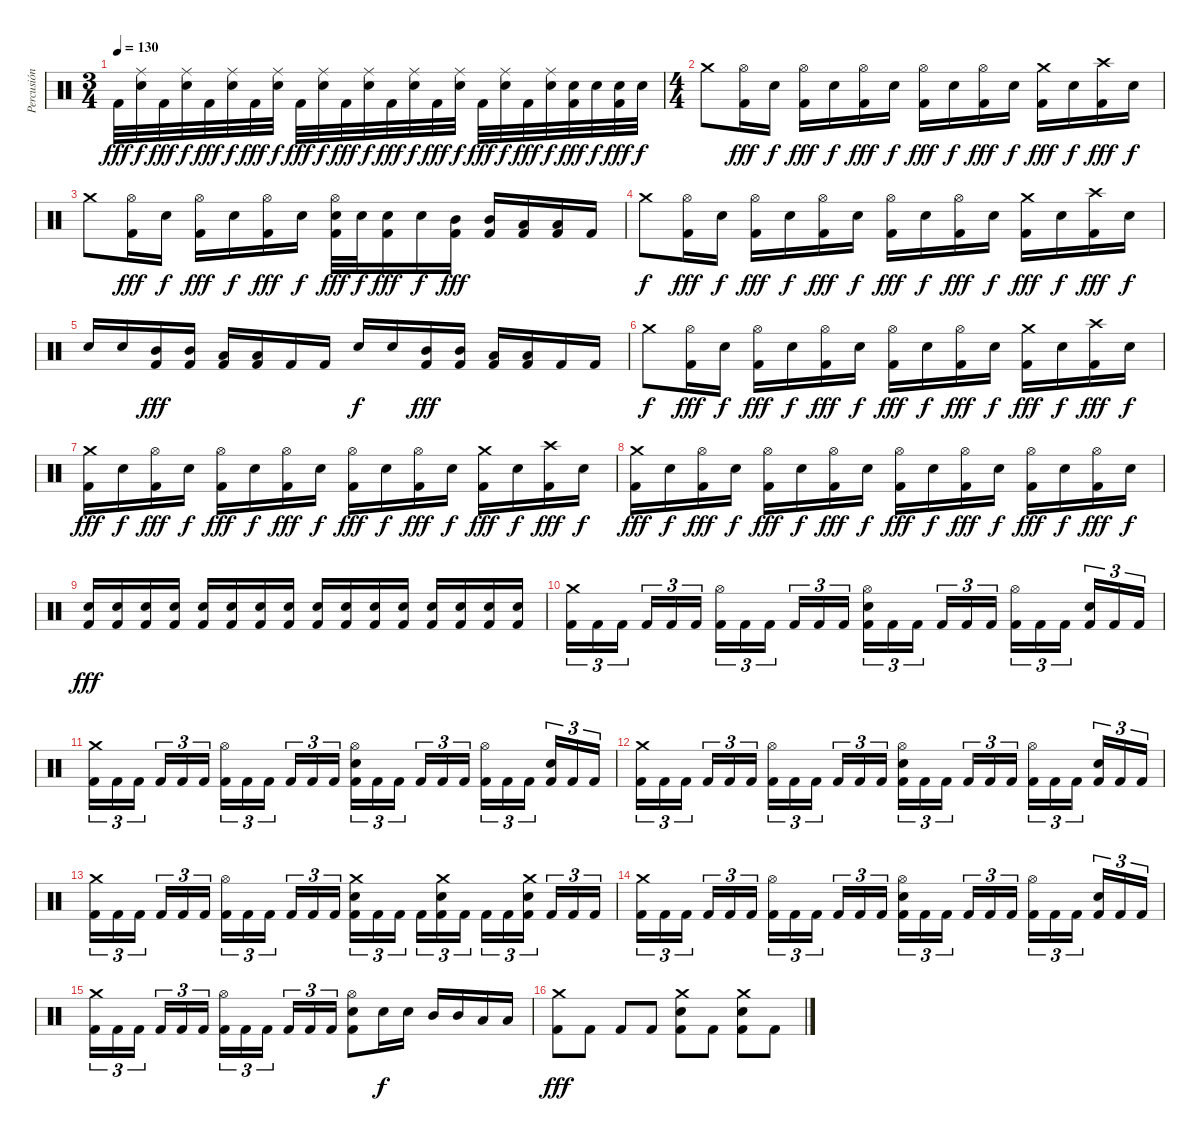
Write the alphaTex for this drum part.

\track ("Percusión" "Percusión") {instrument percussion}
\staff {score}
\articulation defaults
\ts (3 4)
\tempo 130
\clef neutral
\ks c "Kick (hit) 2".32{dy fff}
("Ride (middle)" "Electric Snare (hit)").32{dy f} "Kick (hit) 2".32{dy fff} ("Ride (middle)" "Electric Snare (hit)").32{dy f} "Kick (hit) 2".32{dy fff} ("Ride (middle)" "Electric Snare (hit)").32{dy f} "Kick (hit) 2".32{dy fff} ("Ride (middle)" "Electric Snare (hit)").32{dy f} "Kick (hit) 2".32{dy fff} ("Ride (middle)" "Electric Snare (hit)").32{dy f} "Kick (hit) 2".32{dy fff} ("Ride (middle)" "Electric Snare (hit)").32{dy f} "Kick (hit) 2".32{dy fff} ("Ride (middle)" "Electric Snare (hit)").32{dy f} "Kick (hit) 2".32{dy fff} ("Ride (middle)" "Electric Snare (hit)").32{dy f} "Kick (hit) 2".32{dy fff} ("Ride (middle)" "Electric Snare (hit)").32{dy f} "Kick (hit) 2".32{dy fff} ("Ride (middle)" "Electric Snare (hit)").32{dy f} ("Electric Snare (hit)" "Kick (hit) 2").32{dy fff} "Electric Snare (hit)".32{dy f} ("Electric Snare (hit)" "Kick (hit) 2").32{dy fff} "Electric Snare (hit)".32{dy f} |
\ts (4 4)
"Crash medium (hit)".8 ("Hi-Hat (open)" "Kick (hit) 2").16{dy fff} "Electric Snare (hit)".16{dy f} ("Hi-Hat (open)" "Kick (hit) 2").16{dy fff} "Electric Snare (hit)".16{dy f} ("Hi-Hat (open)" "Kick (hit) 2").16{dy fff} "Electric Snare (hit)".16{dy f} ("Hi-Hat (open)" "Kick (hit) 2").16{dy fff} "Electric Snare (hit)".16{dy f} ("Hi-Hat (open)" "Kick (hit) 2").16{dy fff} "Electric Snare (hit)".16{dy f} ("Crash medium (hit)" "Kick (hit) 2").16{dy fff} "Electric Snare (hit)".16{dy f} ("Crash high (hit)" "Kick (hit) 2").16{dy fff} "Electric Snare (hit)".16{dy f} |
"Crash medium (hit)".8 ("Hi-Hat (open)" "Kick (hit) 2").16{dy fff} "Electric Snare (hit)".16{dy f} ("Hi-Hat (open)" "Kick (hit) 2").16{dy fff} "Electric Snare (hit)".16{dy f} ("Hi-Hat (open)" "Kick (hit) 2").16{dy fff} "Electric Snare (hit)".16{dy f} ("Hi-Hat (open)" "Electric Snare (hit)" "Kick (hit) 2").32{dy fff} "Electric Snare (hit)".32{dy f} ("Electric Snare (hit)" "Kick (hit) 2").16{dy fff} "Electric Snare (hit)".16{dy f} ("Mid Tom (hit)" "Kick (hit) 2").16{dy fff} ("Mid Tom (hit)" "Kick (hit) 2").16 ("Low Tom (hit)" "Kick (hit) 2").16 ("Low Tom (hit)" "Kick (hit) 2").16 "Kick (hit) 2".16 |
"Crash medium (hit)".8{dy f} ("Hi-Hat (open)" "Kick (hit) 2").16{dy fff} "Electric Snare (hit)".16{dy f} ("Hi-Hat (open)" "Kick (hit) 2").16{dy fff} "Electric Snare (hit)".16{dy f} ("Hi-Hat (open)" "Kick (hit) 2").16{dy fff} "Electric Snare (hit)".16{dy f} ("Hi-Hat (open)" "Kick (hit) 2").16{dy fff} "Electric Snare (hit)".16{dy f} ("Hi-Hat (open)" "Kick (hit) 2").16{dy fff} "Electric Snare (hit)".16{dy f} ("Crash medium (hit)" "Kick (hit) 2").16{dy fff} "Electric Snare (hit)".16{dy f} ("Crash high (hit)" "Kick (hit) 2").16{dy fff} "Electric Snare (hit)".16{dy f} |
"Electric Snare (hit)".16 "Electric Snare (hit)".16 ("Mid Tom (hit)" "Kick (hit) 2").16{dy fff} ("Mid Tom (hit)" "Kick (hit) 2").16 ("Low Tom (hit)" "Kick (hit) 2").16 ("Low Tom (hit)" "Kick (hit) 2").16 "Kick (hit) 2".16 "Kick (hit) 2".16 "Electric Snare (hit)".16{dy f} "Electric Snare (hit)".16 ("Mid Tom (hit)" "Kick (hit) 2").16{dy fff} ("Mid Tom (hit)" "Kick (hit) 2").16 ("Low Tom (hit)" "Kick (hit) 2").16 ("Low Tom (hit)" "Kick (hit) 2").16 "Kick (hit) 2".16 "Kick (hit) 2".16 |
"Crash medium (hit)".8{dy f} ("Hi-Hat (open)" "Kick (hit) 2").16{dy fff} "Electric Snare (hit)".16{dy f} ("Hi-Hat (open)" "Kick (hit) 2").16{dy fff} "Electric Snare (hit)".16{dy f} ("Hi-Hat (open)" "Kick (hit) 2").16{dy fff} "Electric Snare (hit)".16{dy f} ("Hi-Hat (open)" "Kick (hit) 2").16{dy fff} "Electric Snare (hit)".16{dy f} ("Hi-Hat (open)" "Kick (hit) 2").16{dy fff} "Electric Snare (hit)".16{dy f} ("Crash medium (hit)" "Kick (hit) 2").16{dy fff} "Electric Snare (hit)".16{dy f} ("Crash high (hit)" "Kick (hit) 2").16{dy fff} "Electric Snare (hit)".16{dy f} |
("Crash medium (hit)" "Kick (hit) 2").16{dy fff} "Electric Snare (hit)".16{dy f} ("Hi-Hat (open)" "Kick (hit) 2").16{dy fff} "Electric Snare (hit)".16{dy f} ("Hi-Hat (open)" "Kick (hit) 2").16{dy fff} "Electric Snare (hit)".16{dy f} ("Hi-Hat (open)" "Kick (hit) 2").16{dy fff} "Electric Snare (hit)".16{dy f} ("Hi-Hat (open)" "Kick (hit) 2").16{dy fff} "Electric Snare (hit)".16{dy f} ("Hi-Hat (open)" "Kick (hit) 2").16{dy fff} "Electric Snare (hit)".16{dy f} ("Crash medium (hit)" "Kick (hit) 2").16{dy fff} "Electric Snare (hit)".16{dy f} ("Crash high (hit)" "Kick (hit) 2").16{dy fff} "Electric Snare (hit)".16{dy f} |
("Crash medium (hit)" "Kick (hit) 2").16{dy fff} "Electric Snare (hit)".16{dy f} ("Hi-Hat (open)" "Kick (hit) 2").16{dy fff} "Electric Snare (hit)".16{dy f} ("Hi-Hat (open)" "Kick (hit) 2").16{dy fff} "Electric Snare (hit)".16{dy f} ("Hi-Hat (open)" "Kick (hit) 2").16{dy fff} "Electric Snare (hit)".16{dy f} ("Hi-Hat (open)" "Kick (hit) 2").16{dy fff} "Electric Snare (hit)".16{dy f} ("Hi-Hat (open)" "Kick (hit) 2").16{dy fff} "Electric Snare (hit)".16{dy f} ("Hi-Hat (open)" "Kick (hit) 2").16{dy fff} "Electric Snare (hit)".16{dy f} ("Hi-Hat (open)" "Kick (hit) 2").16{dy fff} "Electric Snare (hit)".16{dy f} |
("Electric Snare (hit)" "Kick (hit) 2").16{dy fff} ("Electric Snare (hit)" "Kick (hit) 2").16 ("Electric Snare (hit)" "Kick (hit) 2").16 ("Electric Snare (hit)" "Kick (hit) 2").16 ("Electric Snare (hit)" "Kick (hit) 2").16 ("Electric Snare (hit)" "Kick (hit) 2").16 ("Electric Snare (hit)" "Kick (hit) 2").16 ("Electric Snare (hit)" "Kick (hit) 2").16 ("Electric Snare (hit)" "Kick (hit) 2").16 ("Electric Snare (hit)" "Kick (hit) 2").16 ("Electric Snare (hit)" "Kick (hit) 2").16 ("Electric Snare (hit)" "Kick (hit) 2").16 ("Electric Snare (hit)" "Kick (hit) 2").16 ("Electric Snare (hit)" "Kick (hit) 2").16 ("Electric Snare (hit)" "Kick (hit) 2").16 ("Electric Snare (hit)" "Kick (hit) 2").16 |
("Crash medium (hit)" "Kick (hit) 2").16{tu (3 2)} "Kick (hit) 2".16{tu (3 2)} "Kick (hit) 2".16{tu (3 2) beam splitsecondary} "Kick (hit) 2".16{tu (3 2)} "Kick (hit) 2".16{tu (3 2)} "Kick (hit) 2".16{tu (3 2)} ("Hi-Hat (open)" "Kick (hit) 2").16{tu (3 2)} "Kick (hit) 2".16{tu (3 2)} "Kick (hit) 2".16{tu (3 2) beam splitsecondary} "Kick (hit) 2".16{tu (3 2)} "Kick (hit) 2".16{tu (3 2)} "Kick (hit) 2".16{tu (3 2)} ("Hi-Hat (open)" "Electric Snare (hit)" "Kick (hit) 2").16{tu (3 2)} "Kick (hit) 2".16{tu (3 2)} "Kick (hit) 2".16{tu (3 2) beam splitsecondary} "Kick (hit) 2".16{tu (3 2)} "Kick (hit) 2".16{tu (3 2)} "Kick (hit) 2".16{tu (3 2)} ("Hi-Hat (open)" "Kick (hit) 2").16{tu (3 2)} "Kick (hit) 2".16{tu (3 2)} "Kick (hit) 2".16{tu (3 2) beam splitsecondary} ("Electric Snare (hit)" "Kick (hit) 2").16{tu (3 2)} "Kick (hit) 2".16{tu (3 2)} "Kick (hit) 2".16{tu (3 2)} |
("Crash medium (hit)" "Kick (hit) 2").16{tu (3 2)} "Kick (hit) 2".16{tu (3 2)} "Kick (hit) 2".16{tu (3 2) beam splitsecondary} "Kick (hit) 2".16{tu (3 2)} "Kick (hit) 2".16{tu (3 2)} "Kick (hit) 2".16{tu (3 2)} ("Hi-Hat (open)" "Kick (hit) 2").16{tu (3 2)} "Kick (hit) 2".16{tu (3 2)} "Kick (hit) 2".16{tu (3 2) beam splitsecondary} "Kick (hit) 2".16{tu (3 2)} "Kick (hit) 2".16{tu (3 2)} "Kick (hit) 2".16{tu (3 2)} ("Hi-Hat (open)" "Electric Snare (hit)" "Kick (hit) 2").16{tu (3 2)} "Kick (hit) 2".16{tu (3 2)} "Kick (hit) 2".16{tu (3 2) beam splitsecondary} "Kick (hit) 2".16{tu (3 2)} "Kick (hit) 2".16{tu (3 2)} "Kick (hit) 2".16{tu (3 2)} ("Hi-Hat (open)" "Kick (hit) 2").16{tu (3 2)} "Kick (hit) 2".16{tu (3 2)} "Kick (hit) 2".16{tu (3 2) beam splitsecondary} ("Electric Snare (hit)" "Kick (hit) 2").16{tu (3 2)} "Kick (hit) 2".16{tu (3 2)} "Kick (hit) 2".16{tu (3 2)} |
("Crash medium (hit)" "Kick (hit) 2").16{tu (3 2)} "Kick (hit) 2".16{tu (3 2)} "Kick (hit) 2".16{tu (3 2) beam splitsecondary} "Kick (hit) 2".16{tu (3 2)} "Kick (hit) 2".16{tu (3 2)} "Kick (hit) 2".16{tu (3 2)} ("Hi-Hat (open)" "Kick (hit) 2").16{tu (3 2)} "Kick (hit) 2".16{tu (3 2)} "Kick (hit) 2".16{tu (3 2) beam splitsecondary} "Kick (hit) 2".16{tu (3 2)} "Kick (hit) 2".16{tu (3 2)} "Kick (hit) 2".16{tu (3 2)} ("Hi-Hat (open)" "Electric Snare (hit)" "Kick (hit) 2").16{tu (3 2)} "Kick (hit) 2".16{tu (3 2)} "Kick (hit) 2".16{tu (3 2) beam splitsecondary} "Kick (hit) 2".16{tu (3 2)} "Kick (hit) 2".16{tu (3 2)} "Kick (hit) 2".16{tu (3 2)} ("Hi-Hat (open)" "Kick (hit) 2").16{tu (3 2)} "Kick (hit) 2".16{tu (3 2)} "Kick (hit) 2".16{tu (3 2) beam splitsecondary} ("Electric Snare (hit)" "Kick (hit) 2").16{tu (3 2)} "Kick (hit) 2".16{tu (3 2)} "Kick (hit) 2".16{tu (3 2)} |
("Crash medium (hit)" "Kick (hit) 2").16{tu (3 2)} "Kick (hit) 2".16{tu (3 2)} "Kick (hit) 2".16{tu (3 2) beam splitsecondary} "Kick (hit) 2".16{tu (3 2)} "Kick (hit) 2".16{tu (3 2)} "Kick (hit) 2".16{tu (3 2)} ("Hi-Hat (open)" "Kick (hit) 2").16{tu (3 2)} "Kick (hit) 2".16{tu (3 2)} "Kick (hit) 2".16{tu (3 2) beam splitsecondary} "Kick (hit) 2".16{tu (3 2)} "Kick (hit) 2".16{tu (3 2)} "Kick (hit) 2".16{tu (3 2)} ("Crash medium (hit)" "Electric Snare (hit)" "Kick (hit) 2").16{tu (3 2)} "Kick (hit) 2".16{tu (3 2)} "Kick (hit) 2".16{tu (3 2) beam splitsecondary} "Kick (hit) 2".16{tu (3 2)} ("Crash medium (hit)" "Electric Snare (hit)" "Kick (hit) 2").16{tu (3 2)} "Kick (hit) 2".16{tu (3 2)} "Kick (hit) 2".16{tu (3 2)} "Kick (hit) 2".16{tu (3 2)} ("Crash medium (hit)" "Electric Snare (hit)" "Kick (hit) 2").16{tu (3 2) beam splitsecondary} "Kick (hit) 2".16{tu (3 2)} "Kick (hit) 2".16{tu (3 2)} "Kick (hit) 2".16{tu (3 2)} |
("Crash medium (hit)" "Kick (hit) 2").16{tu (3 2)} "Kick (hit) 2".16{tu (3 2)} "Kick (hit) 2".16{tu (3 2) beam splitsecondary} "Kick (hit) 2".16{tu (3 2)} "Kick (hit) 2".16{tu (3 2)} "Kick (hit) 2".16{tu (3 2)} ("Hi-Hat (open)" "Kick (hit) 2").16{tu (3 2)} "Kick (hit) 2".16{tu (3 2)} "Kick (hit) 2".16{tu (3 2) beam splitsecondary} "Kick (hit) 2".16{tu (3 2)} "Kick (hit) 2".16{tu (3 2)} "Kick (hit) 2".16{tu (3 2)} ("Hi-Hat (open)" "Electric Snare (hit)" "Kick (hit) 2").16{tu (3 2)} "Kick (hit) 2".16{tu (3 2)} "Kick (hit) 2".16{tu (3 2) beam splitsecondary} "Kick (hit) 2".16{tu (3 2)} "Kick (hit) 2".16{tu (3 2)} "Kick (hit) 2".16{tu (3 2)} ("Hi-Hat (open)" "Kick (hit) 2").16{tu (3 2)} "Kick (hit) 2".16{tu (3 2)} "Kick (hit) 2".16{tu (3 2) beam splitsecondary} ("Electric Snare (hit)" "Kick (hit) 2").16{tu (3 2)} "Kick (hit) 2".16{tu (3 2)} "Kick (hit) 2".16{tu (3 2)} |
("Crash medium (hit)" "Kick (hit) 2").16{tu (3 2)} "Kick (hit) 2".16{tu (3 2)} "Kick (hit) 2".16{tu (3 2) beam splitsecondary} "Kick (hit) 2".16{tu (3 2)} "Kick (hit) 2".16{tu (3 2)} "Kick (hit) 2".16{tu (3 2)} ("Hi-Hat (open)" "Kick (hit) 2").16{tu (3 2)} "Kick (hit) 2".16{tu (3 2)} "Kick (hit) 2".16{tu (3 2) beam splitsecondary} "Kick (hit) 2".16{tu (3 2)} "Kick (hit) 2".16{tu (3 2)} "Kick (hit) 2".16{tu (3 2)} ("Hi-Hat (open)" "Electric Snare (hit)" "Kick (hit) 2").8 "Electric Snare (hit)".16{dy f} "Electric Snare (hit)".16 "Mid Tom (hit)".16 "Mid Tom (hit)".16 "Low Tom (hit)".16 "Low Tom (hit)".16 |
("Crash medium (hit)" "Kick (hit) 2").8{dy fff} "Kick (hit) 2".8 "Kick (hit) 2".8 "Kick (hit) 2".8 ("Crash medium (hit)" "Electric Snare (hit)" "Kick (hit) 2").8 "Kick (hit) 2".8 ("Crash medium (hit)" "Electric Snare (hit)" "Kick (hit) 2").8 "Kick (hit) 2".8
